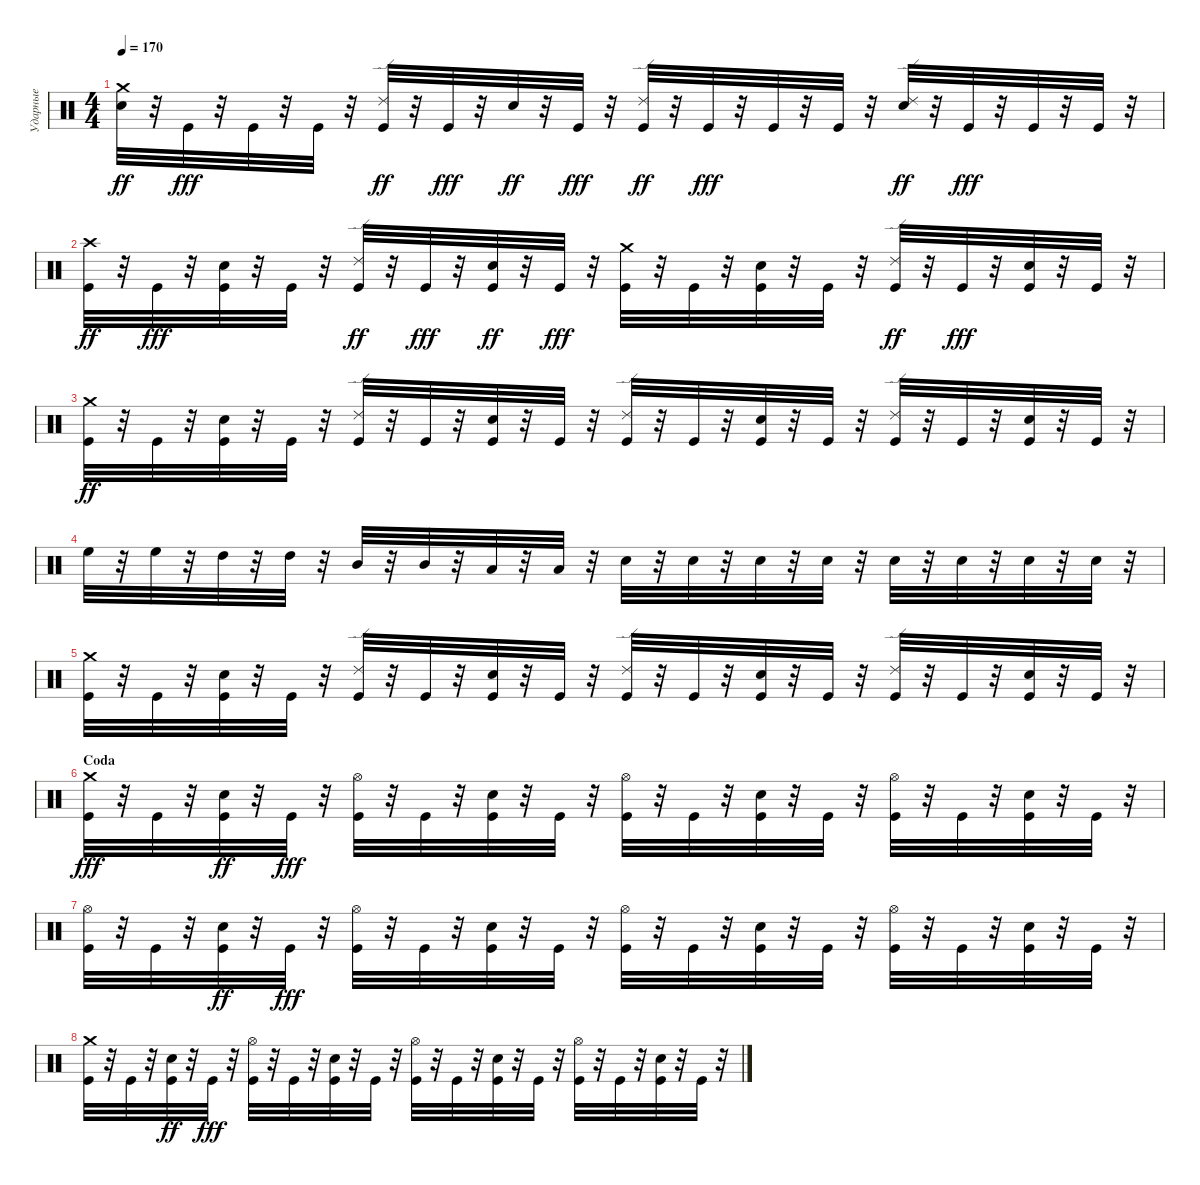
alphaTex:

\track ("Ударные" "Ударные") {instrument percussion}
\staff {score}
\articulation defaults
\ts (4 4)
\tempo 170
\clef neutral
\ks c
("Snare (hit) 2" "Crash medium (hit)").32{dy ff} r.32 "Kick (hit)".32{dy fff} r.32 "Kick (hit)".32 r.32 "Kick (hit)".32 r.32 ("Kick (hit)" "Ride (edge) 2").32{dy ff} r.32 "Kick (hit)".32{dy fff} r.32 "Snare (hit) 2".32{dy ff} r.32 "Kick (hit)".32{dy fff} r.32 ("Kick (hit)" "Ride (edge) 2").32{dy ff} r.32 "Kick (hit)".32{dy fff} r.32 "Kick (hit)".32 r.32 "Kick (hit)".32 r.32 ("Ride (edge) 2" "Snare (hit) 2").32{dy ff} r.32 "Kick (hit)".32{dy fff} r.32 "Kick (hit)".32 r.32 "Kick (hit)".32 r.32 |
("Kick (hit)" "Crash high (hit)").32{dy ff} r.32 "Kick (hit)".32{dy fff} r.32 ("Snare (hit) 2" "Kick (hit)").32 r.32 "Kick (hit)".32 r.32 ("Kick (hit)" "Ride (edge) 2").32{dy ff} r.32 "Kick (hit)".32{dy fff} r.32 ("Kick (hit)" "Snare (hit) 2").32{dy ff} r.32 "Kick (hit)".32{dy fff} r.32 ("Crash medium (hit)" "Kick (hit)").32 r.32 "Kick (hit)".32 r.32 ("Snare (hit) 2" "Kick (hit)").32 r.32 "Kick (hit)".32 r.32 ("Kick (hit)" "Ride (edge) 2").32{dy ff} r.32 "Kick (hit)".32{dy fff} r.32 ("Snare (hit) 2" "Kick (hit)").32 r.32 "Kick (hit)".32 r.32 |
("Crash medium (hit)" "Kick (hit)").32{dy ff} r.32 "Kick (hit)".32 r.32 ("Kick (hit)" "Snare (hit) 2").32 r.32 "Kick (hit)".32 r.32 ("Ride (edge) 2" "Kick (hit)").32 r.32 "Kick (hit)".32 r.32 ("Snare (hit) 2" "Kick (hit)").32 r.32 "Kick (hit)".32 r.32 ("Ride (edge) 2" "Kick (hit)").32 r.32 "Kick (hit)".32 r.32 ("Snare (hit) 2" "Kick (hit)").32 r.32 "Kick (hit)".32 r.32 ("Kick (hit)" "Ride (edge) 2").32 r.32 "Kick (hit)".32 r.32 ("Kick (hit)" "Snare (hit) 2").32 r.32 "Kick (hit)".32 r.32 |
"High Floor Tom (hit)".32 r.32 "High Floor Tom (hit)".32 r.32 "High Tom (hit)".32 r.32 "High Tom (hit)".32 r.32 "Mid Tom (hit)".32 r.32 "Mid Tom (hit)".32 r.32 "Low Tom (hit)".32 r.32 "Low Tom (hit)".32 r.32 "Snare (hit) 2".32 r.32 "Snare (hit) 2".32 r.32 "Snare (hit) 2".32 r.32 "Snare (hit) 2".32 r.32 "Snare (hit) 2".32 r.32 "Snare (hit) 2".32 r.32 "Snare (hit) 2".32 r.32 "Snare (hit) 2".32 r.32 |
("Crash medium (hit)" "Kick (hit)").32 r.32 "Kick (hit)".32 r.32 ("Snare (hit) 2" "Kick (hit)").32 r.32 "Kick (hit)".32 r.32 ("Ride (edge) 2" "Kick (hit)").32 r.32 "Kick (hit)".32 r.32 ("Kick (hit)" "Snare (hit) 2").32 r.32 "Kick (hit)".32 r.32 ("Ride (edge) 2" "Kick (hit)").32 r.32 "Kick (hit)".32 r.32 ("Snare (hit) 2" "Kick (hit)").32 r.32 "Kick (hit)".32 r.32 ("Ride (edge) 2" "Kick (hit)").32 r.32 "Kick (hit)".32 r.32 ("Snare (hit) 2" "Kick (hit)").32 r.32 "Kick (hit)".32 r.32 |
\section ("" "Coda")
("Crash medium (hit)" "Kick (hit)").32{dy fff} r.32 "Kick (hit)".32 r.32 ("Kick (hit)" "Snare (hit) 2").32{dy ff} r.32 "Kick (hit)".32{dy fff} r.32 ("Hi-Hat (open)" "Kick (hit)").32 r.32 "Kick (hit)".32 r.32 ("Snare (hit) 2" "Kick (hit)").32 r.32 "Kick (hit)".32 r.32 ("Hi-Hat (open)" "Kick (hit)").32 r.32 "Kick (hit)".32 r.32 ("Snare (hit) 2" "Kick (hit)").32 r.32 "Kick (hit)".32 r.32 ("Hi-Hat (open)" "Kick (hit)").32 r.32 "Kick (hit)".32 r.32 ("Snare (hit) 2" "Kick (hit)").32 r.32 "Kick (hit)".32 r.32 |
("Hi-Hat (open)" "Kick (hit)").32 r.32 "Kick (hit)".32 r.32 ("Kick (hit)" "Snare (hit) 2").32{dy ff} r.32 "Kick (hit)".32{dy fff} r.32 ("Hi-Hat (open)" "Kick (hit)").32 r.32 "Kick (hit)".32 r.32 ("Snare (hit) 2" "Kick (hit)").32 r.32 "Kick (hit)".32 r.32 ("Hi-Hat (open)" "Kick (hit)").32 r.32 "Kick (hit)".32 r.32 ("Snare (hit) 2" "Kick (hit)").32 r.32 "Kick (hit)".32 r.32 ("Hi-Hat (open)" "Kick (hit)").32 r.32 "Kick (hit)".32 r.32 ("Snare (hit) 2" "Kick (hit)").32 r.32 "Kick (hit)".32 r.32 |
("Crash medium (hit)" "Kick (hit)").32 r.32 "Kick (hit)".32 r.32 ("Kick (hit)" "Snare (hit) 2").32{dy ff} r.32 "Kick (hit)".32{dy fff} r.32 ("Hi-Hat (open)" "Kick (hit)").32 r.32 "Kick (hit)".32 r.32 ("Snare (hit) 2" "Kick (hit)").32 r.32 "Kick (hit)".32 r.32 ("Hi-Hat (open)" "Kick (hit)").32 r.32 "Kick (hit)".32 r.32 ("Snare (hit) 2" "Kick (hit)").32 r.32 "Kick (hit)".32 r.32 ("Hi-Hat (open)" "Kick (hit)").32 r.32 "Kick (hit)".32 r.32 ("Snare (hit) 2" "Kick (hit)").32 r.32 "Kick (hit)".32 r.32
